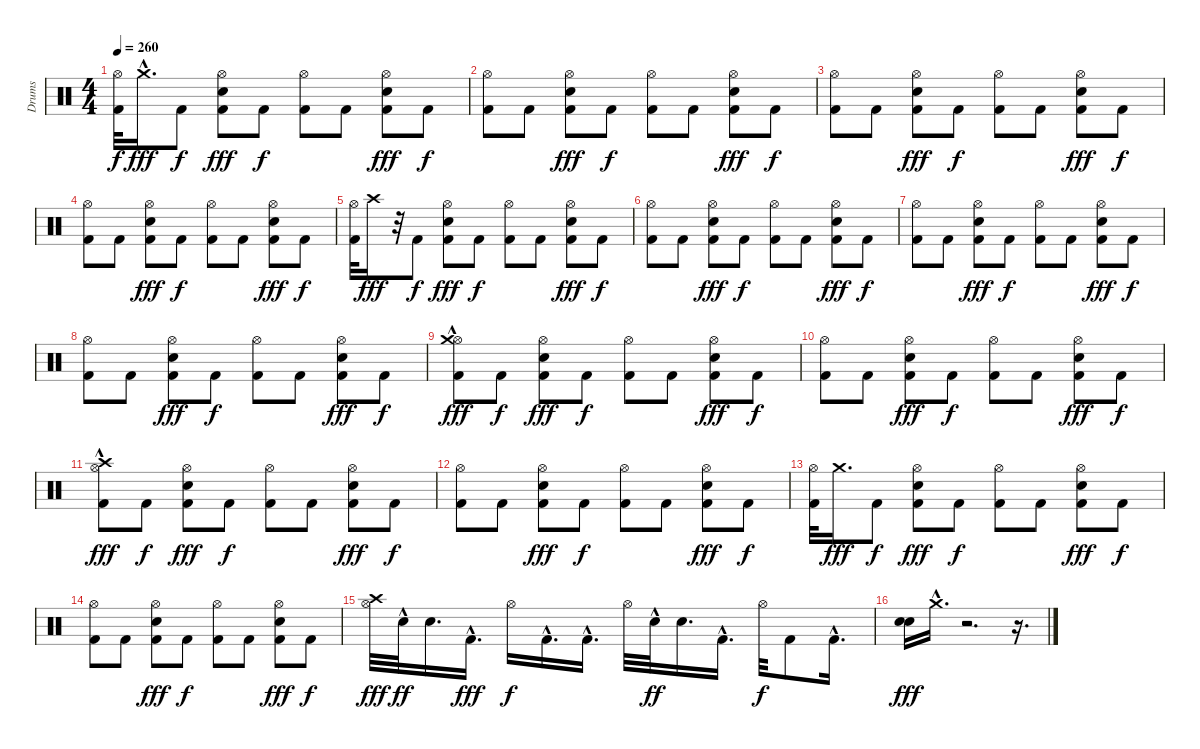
\track ("Drums" "Drums") {instrument percussion}
\staff {score}
\articulation defaults
\ts (4 4)
\tempo 260
\clef neutral
\ks c
("Hi-Hat (open)" "Kick (hit) 2").32{dy f} "Crash medium (hit)"{hac}.16{d dy fff} "Kick (hit) 2".8{dy f} ("Hi-Hat (open)" "Snare (hit) 2" "Kick (hit) 2").8{dy fff} "Kick (hit) 2".8{dy f} ("Hi-Hat (open)" "Kick (hit) 2").8 "Kick (hit) 2".8 ("Hi-Hat (open)" "Snare (hit) 2" "Kick (hit) 2").8{dy fff} "Kick (hit) 2".8{dy f} |
("Hi-Hat (open)" "Kick (hit) 2").8 "Kick (hit) 2".8 ("Hi-Hat (open)" "Snare (hit) 2" "Kick (hit) 2").8{dy fff} "Kick (hit) 2".8{dy f} ("Hi-Hat (open)" "Kick (hit) 2").8 "Kick (hit) 2".8 ("Hi-Hat (open)" "Snare (hit) 2" "Kick (hit) 2").8{dy fff} "Kick (hit) 2".8{dy f} |
("Hi-Hat (open)" "Kick (hit) 2").8 "Kick (hit) 2".8 ("Hi-Hat (open)" "Snare (hit) 2" "Kick (hit) 2").8{dy fff} "Kick (hit) 2".8{dy f} ("Hi-Hat (open)" "Kick (hit) 2").8 "Kick (hit) 2".8 ("Hi-Hat (open)" "Snare (hit) 2" "Kick (hit) 2").8{dy fff} "Kick (hit) 2".8{dy f} |
("Hi-Hat (open)" "Kick (hit) 2").8 "Kick (hit) 2".8 ("Hi-Hat (open)" "Snare (hit) 2" "Kick (hit) 2").8{dy fff} "Kick (hit) 2".8{dy f} ("Hi-Hat (open)" "Kick (hit) 2").8 "Kick (hit) 2".8 ("Hi-Hat (open)" "Snare (hit) 2" "Kick (hit) 2").8{dy fff} "Kick (hit) 2".8{dy f} |
("Hi-Hat (open)" "Kick (hit) 2").32 "Crash high (hit)".16{dy fff} r.32 "Kick (hit) 2".8{dy f} ("Hi-Hat (open)" "Snare (hit) 2" "Kick (hit) 2").8{dy fff} "Kick (hit) 2".8{dy f} ("Hi-Hat (open)" "Kick (hit) 2").8 "Kick (hit) 2".8 ("Hi-Hat (open)" "Snare (hit) 2" "Kick (hit) 2").8{dy fff} "Kick (hit) 2".8{dy f} |
("Hi-Hat (open)" "Kick (hit) 2").8 "Kick (hit) 2".8 ("Hi-Hat (open)" "Snare (hit) 2" "Kick (hit) 2").8{dy fff} "Kick (hit) 2".8{dy f} ("Hi-Hat (open)" "Kick (hit) 2").8 "Kick (hit) 2".8 ("Hi-Hat (open)" "Snare (hit) 2" "Kick (hit) 2").8{dy fff} "Kick (hit) 2".8{dy f} |
("Hi-Hat (open)" "Kick (hit) 2").8 "Kick (hit) 2".8 ("Hi-Hat (open)" "Snare (hit) 2" "Kick (hit) 2").8{dy fff} "Kick (hit) 2".8{dy f} ("Hi-Hat (open)" "Kick (hit) 2").8 "Kick (hit) 2".8 ("Hi-Hat (open)" "Snare (hit) 2" "Kick (hit) 2").8{dy fff} "Kick (hit) 2".8{dy f} |
("Hi-Hat (open)" "Kick (hit) 2").8 "Kick (hit) 2".8 ("Hi-Hat (open)" "Snare (hit) 2" "Kick (hit) 2").8{dy fff} "Kick (hit) 2".8{dy f} ("Hi-Hat (open)" "Kick (hit) 2").8 "Kick (hit) 2".8 ("Hi-Hat (open)" "Snare (hit) 2" "Kick (hit) 2").8{dy fff} "Kick (hit) 2".8{dy f} |
("Hi-Hat (open)" "Kick (hit) 2" "Crash medium (hit)"{hac}).8{dy fff} "Kick (hit) 2".8{dy f} ("Hi-Hat (open)" "Snare (hit) 2" "Kick (hit) 2").8{dy fff} "Kick (hit) 2".8{dy f} ("Hi-Hat (open)" "Kick (hit) 2").8 "Kick (hit) 2".8 ("Hi-Hat (open)" "Snare (hit) 2" "Kick (hit) 2").8{dy fff} "Kick (hit) 2".8{dy f} |
("Hi-Hat (open)" "Kick (hit) 2").8 "Kick (hit) 2".8 ("Hi-Hat (open)" "Snare (hit) 2" "Kick (hit) 2").8{dy fff} "Kick (hit) 2".8{dy f} ("Hi-Hat (open)" "Kick (hit) 2").8 "Kick (hit) 2".8 ("Hi-Hat (open)" "Snare (hit) 2" "Kick (hit) 2").8{dy fff} "Kick (hit) 2".8{dy f} |
("Hi-Hat (open)" "Kick (hit) 2" "Crash high (hit)"{hac}).8{dy fff} "Kick (hit) 2".8{dy f} ("Hi-Hat (open)" "Snare (hit) 2" "Kick (hit) 2").8{dy fff} "Kick (hit) 2".8{dy f} ("Hi-Hat (open)" "Kick (hit) 2").8 "Kick (hit) 2".8 ("Hi-Hat (open)" "Snare (hit) 2" "Kick (hit) 2").8{dy fff} "Kick (hit) 2".8{dy f} |
("Hi-Hat (open)" "Kick (hit) 2").8 "Kick (hit) 2".8 ("Hi-Hat (open)" "Snare (hit) 2" "Kick (hit) 2").8{dy fff} "Kick (hit) 2".8{dy f} ("Hi-Hat (open)" "Kick (hit) 2").8 "Kick (hit) 2".8 ("Hi-Hat (open)" "Snare (hit) 2" "Kick (hit) 2").8{dy fff} "Kick (hit) 2".8{dy f} |
("Hi-Hat (open)" "Kick (hit) 2").32 "Crash medium (hit)".16{d dy fff} "Kick (hit) 2".8{dy f} ("Hi-Hat (open)" "Snare (hit) 2" "Kick (hit) 2").8{dy fff} "Kick (hit) 2".8{dy f} ("Hi-Hat (open)" "Kick (hit) 2").8 "Kick (hit) 2".8 ("Hi-Hat (open)" "Snare (hit) 2" "Kick (hit) 2").8{dy fff} "Kick (hit) 2".8{dy f} |
("Hi-Hat (open)" "Kick (hit) 2").8 "Kick (hit) 2".8 ("Hi-Hat (open)" "Snare (hit) 2" "Kick (hit) 2").8{dy fff} "Kick (hit) 2".8{dy f} ("Hi-Hat (open)" "Kick (hit) 2").8 "Kick (hit) 2".8 ("Hi-Hat (open)" "Snare (hit) 2" "Kick (hit) 2").8{dy fff} "Kick (hit) 2".8{dy f} |
("Hi-Hat (open)" "Crash high (hit)").32{dy fff} "Electric Snare (hit)"{hac}.32{dy ff} "Snare (hit) 2".16{d} "Kick (hit) 2"{hac}.16{d dy fff} "Hi-Hat (open)".16{dy f} "Kick (hit) 2"{hac}.16{d} "Kick (hit) 2"{hac}.16{d} "Hi-Hat (open)".32 "Electric Snare (hit)"{hac}.32{dy ff} "Snare (hit) 2".16{d} "Kick (hit) 2"{hac}.16{d} "Hi-Hat (open)".32{dy f} "Kick (hit) 2".8 "Kick (hit) 2"{hac}.16{d} |
("Electric Snare (hit)" "Snare (hit) 2").16{dy fff} "Crash medium (hit)"{hac}.16{d} r.2{d} r.16{d}
